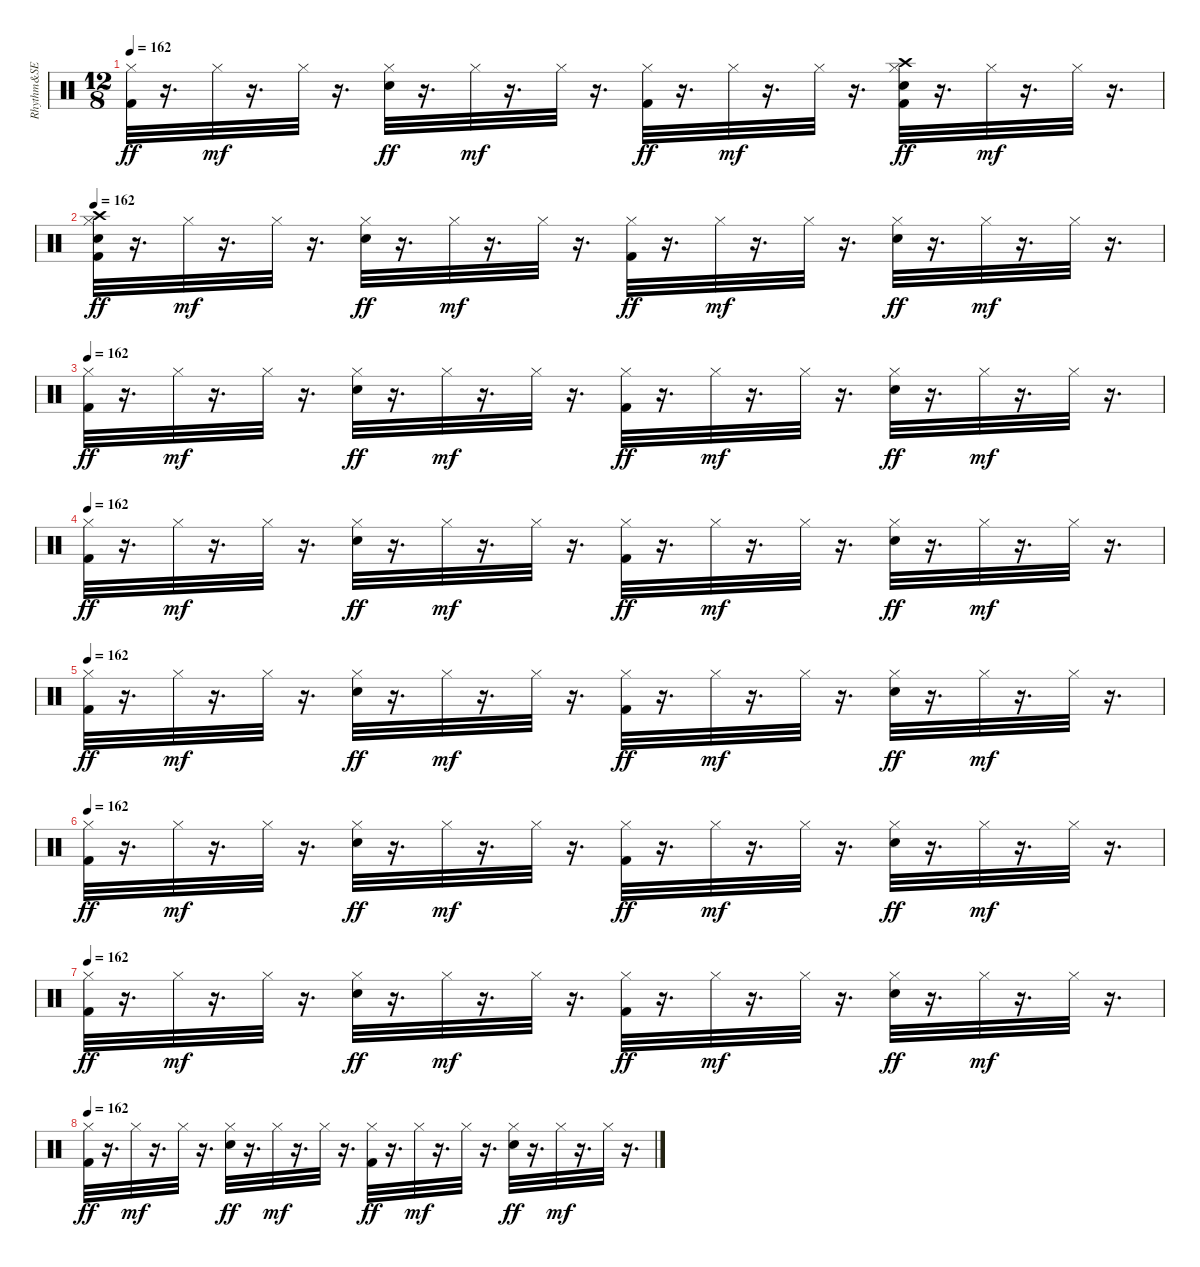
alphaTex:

\track ("Rhythm&SE" "Rhythm&SE") {instrument percussion}
\staff {score}
\articulation defaults
\ts (12 8)
\tempo 162
\clef neutral
\ks c
("Kick (hit) 2" "Hi-Hat (closed)").32{dy ff volume 14 balance 8} r.16{d} "Hi-Hat (closed)".32{dy mf} r.16{d} "Hi-Hat (closed)".32{volume 14} r.16{d} ("Snare (hit) 2" "Hi-Hat (closed)").32{dy ff} r.16{d} "Hi-Hat (closed)".32{dy mf} r.16{d} "Hi-Hat (closed)".32 r.16{d} ("Kick (hit) 2" "Hi-Hat (closed)").32{dy ff} r.16{d} "Hi-Hat (closed)".32{dy mf} r.16{d} "Hi-Hat (closed)".32 r.16{d} ("Snare (hit) 2" "Hi-Hat (closed)" "Kick (hit) 2" "Crash high (hit)").32{dy ff} r.16{d} "Hi-Hat (closed)".32{dy mf} r.16{d} "Hi-Hat (closed)".32 r.16{d} |
\tempo 162
("Kick (hit) 2" "Hi-Hat (closed)" "Snare (hit) 2" "Crash high (hit)").32{dy ff volume 14 balance 8} r.16{d} "Hi-Hat (closed)".32{dy mf} r.16{d} "Hi-Hat (closed)".32{volume 14} r.16{d} ("Snare (hit) 2" "Hi-Hat (closed)").32{dy ff} r.16{d} "Hi-Hat (closed)".32{dy mf} r.16{d} "Hi-Hat (closed)".32 r.16{d} ("Kick (hit) 2" "Hi-Hat (closed)").32{dy ff} r.16{d} "Hi-Hat (closed)".32{dy mf} r.16{d} "Hi-Hat (closed)".32 r.16{d} ("Snare (hit) 2" "Hi-Hat (closed)").32{dy ff} r.16{d} "Hi-Hat (closed)".32{dy mf} r.16{d} "Hi-Hat (closed)".32 r.16{d} |
\tempo 162
("Kick (hit) 2" "Hi-Hat (closed)").32{dy ff volume 14 balance 8} r.16{d} "Hi-Hat (closed)".32{dy mf} r.16{d} "Hi-Hat (closed)".32{volume 14} r.16{d} ("Snare (hit) 2" "Hi-Hat (closed)").32{dy ff} r.16{d} "Hi-Hat (closed)".32{dy mf} r.16{d} "Hi-Hat (closed)".32 r.16{d} ("Kick (hit) 2" "Hi-Hat (closed)").32{dy ff} r.16{d} "Hi-Hat (closed)".32{dy mf} r.16{d} "Hi-Hat (closed)".32 r.16{d} ("Snare (hit) 2" "Hi-Hat (closed)").32{dy ff} r.16{d} "Hi-Hat (closed)".32{dy mf} r.16{d} "Hi-Hat (closed)".32 r.16{d} |
\tempo 162
("Kick (hit) 2" "Hi-Hat (closed)").32{dy ff volume 14 balance 8} r.16{d} "Hi-Hat (closed)".32{dy mf} r.16{d} "Hi-Hat (closed)".32{volume 14} r.16{d} ("Snare (hit) 2" "Hi-Hat (closed)").32{dy ff} r.16{d} "Hi-Hat (closed)".32{dy mf} r.16{d} "Hi-Hat (closed)".32 r.16{d} ("Kick (hit) 2" "Hi-Hat (closed)").32{dy ff} r.16{d} "Hi-Hat (closed)".32{dy mf} r.16{d} "Hi-Hat (closed)".32 r.16{d} ("Snare (hit) 2" "Hi-Hat (closed)").32{dy ff} r.16{d} "Hi-Hat (closed)".32{dy mf} r.16{d} "Hi-Hat (closed)".32 r.16{d} |
\tempo 162
("Kick (hit) 2" "Hi-Hat (closed)").32{dy ff volume 14 balance 8} r.16{d} "Hi-Hat (closed)".32{dy mf} r.16{d} "Hi-Hat (closed)".32{volume 14} r.16{d} ("Snare (hit) 2" "Hi-Hat (closed)").32{dy ff} r.16{d} "Hi-Hat (closed)".32{dy mf} r.16{d} "Hi-Hat (closed)".32 r.16{d} ("Kick (hit) 2" "Hi-Hat (closed)").32{dy ff} r.16{d} "Hi-Hat (closed)".32{dy mf} r.16{d} "Hi-Hat (closed)".32 r.16{d} ("Snare (hit) 2" "Hi-Hat (closed)").32{dy ff} r.16{d} "Hi-Hat (closed)".32{dy mf} r.16{d} "Hi-Hat (closed)".32 r.16{d} |
\tempo 162
("Kick (hit) 2" "Hi-Hat (closed)").32{dy ff volume 14 balance 8} r.16{d} "Hi-Hat (closed)".32{dy mf} r.16{d} "Hi-Hat (closed)".32{volume 14} r.16{d} ("Snare (hit) 2" "Hi-Hat (closed)").32{dy ff} r.16{d} "Hi-Hat (closed)".32{dy mf} r.16{d} "Hi-Hat (closed)".32 r.16{d} ("Kick (hit) 2" "Hi-Hat (closed)").32{dy ff} r.16{d} "Hi-Hat (closed)".32{dy mf} r.16{d} "Hi-Hat (closed)".32 r.16{d} ("Snare (hit) 2" "Hi-Hat (closed)").32{dy ff} r.16{d} "Hi-Hat (closed)".32{dy mf} r.16{d} "Hi-Hat (closed)".32 r.16{d} |
\tempo 162
("Kick (hit) 2" "Hi-Hat (closed)").32{dy ff volume 14 balance 8} r.16{d} "Hi-Hat (closed)".32{dy mf} r.16{d} "Hi-Hat (closed)".32{volume 14} r.16{d} ("Snare (hit) 2" "Hi-Hat (closed)").32{dy ff} r.16{d} "Hi-Hat (closed)".32{dy mf} r.16{d} "Hi-Hat (closed)".32 r.16{d} ("Kick (hit) 2" "Hi-Hat (closed)").32{dy ff} r.16{d} "Hi-Hat (closed)".32{dy mf} r.16{d} "Hi-Hat (closed)".32 r.16{d} ("Snare (hit) 2" "Hi-Hat (closed)").32{dy ff} r.16{d} "Hi-Hat (closed)".32{dy mf} r.16{d} "Hi-Hat (closed)".32 r.16{d} |
\tempo 162
("Kick (hit) 2" "Hi-Hat (closed)").32{dy ff volume 14 balance 8} r.16{d} "Hi-Hat (closed)".32{dy mf} r.16{d} "Hi-Hat (closed)".32{volume 14} r.16{d} ("Snare (hit) 2" "Hi-Hat (closed)").32{dy ff} r.16{d} "Hi-Hat (closed)".32{dy mf} r.16{d} "Hi-Hat (closed)".32 r.16{d} ("Kick (hit) 2" "Hi-Hat (closed)").32{dy ff} r.16{d} "Hi-Hat (closed)".32{dy mf} r.16{d} "Hi-Hat (closed)".32 r.16{d} ("Snare (hit) 2" "Hi-Hat (closed)").32{dy ff} r.16{d} "Hi-Hat (closed)".32{dy mf} r.16{d} "Hi-Hat (closed)".32 r.16{d}
